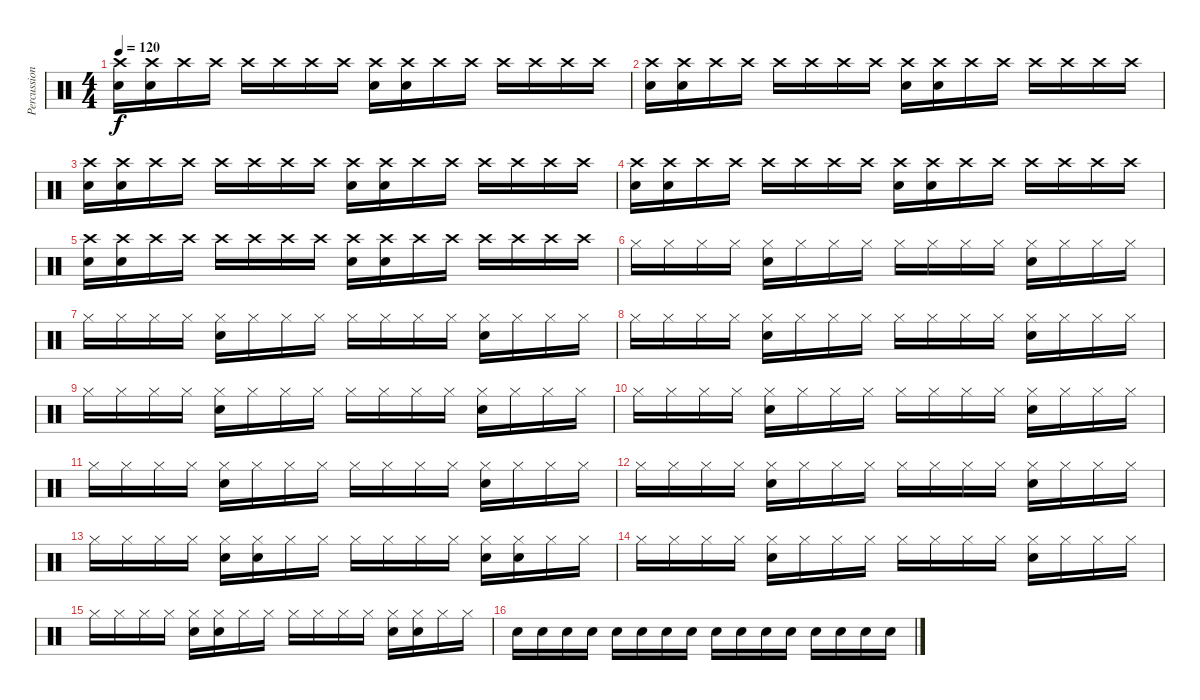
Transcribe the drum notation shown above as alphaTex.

\track ("Percussion" "Percussion") {instrument percussion}
\staff {score}
\articulation defaults
\ts (4 4)
\tempo 120
\clef neutral
\ks c
("Crash high (hit)" "Electric Snare (hit)").16{dy f} ("Crash high (hit)" "Electric Snare (hit)").16 "Crash high (hit)".16 "Crash high (hit)".16 "Crash high (hit)".16 "Crash high (hit)".16 "Crash high (hit)".16 "Crash high (hit)".16 ("Crash high (hit)" "Electric Snare (hit)").16 ("Crash high (hit)" "Electric Snare (hit)").16 "Crash high (hit)".16 "Crash high (hit)".16 "Crash high (hit)".16 "Crash high (hit)".16 "Crash high (hit)".16 "Crash high (hit)".16 |
("Crash high (hit)" "Electric Snare (hit)").16 ("Crash high (hit)" "Electric Snare (hit)").16 "Crash high (hit)".16 "Crash high (hit)".16 "Crash high (hit)".16 "Crash high (hit)".16 "Crash high (hit)".16 "Crash high (hit)".16 ("Crash high (hit)" "Electric Snare (hit)").16 ("Crash high (hit)" "Electric Snare (hit)").16 "Crash high (hit)".16 "Crash high (hit)".16 "Crash high (hit)".16 "Crash high (hit)".16 "Crash high (hit)".16 "Crash high (hit)".16 |
("Crash high (hit)" "Electric Snare (hit)").16 ("Crash high (hit)" "Electric Snare (hit)").16 "Crash high (hit)".16 "Crash high (hit)".16 "Crash high (hit)".16 "Crash high (hit)".16 "Crash high (hit)".16 "Crash high (hit)".16 ("Crash high (hit)" "Electric Snare (hit)").16 ("Crash high (hit)" "Electric Snare (hit)").16 "Crash high (hit)".16 "Crash high (hit)".16 "Crash high (hit)".16 "Crash high (hit)".16 "Crash high (hit)".16 "Crash high (hit)".16 |
("Crash high (hit)" "Electric Snare (hit)").16 ("Crash high (hit)" "Electric Snare (hit)").16 "Crash high (hit)".16 "Crash high (hit)".16 "Crash high (hit)".16 "Crash high (hit)".16 "Crash high (hit)".16 "Crash high (hit)".16 ("Crash high (hit)" "Electric Snare (hit)").16 ("Crash high (hit)" "Electric Snare (hit)").16 "Crash high (hit)".16 "Crash high (hit)".16 "Crash high (hit)".16 "Crash high (hit)".16 "Crash high (hit)".16 "Crash high (hit)".16 |
("Crash high (hit)" "Electric Snare (hit)").16 ("Crash high (hit)" "Electric Snare (hit)").16 "Crash high (hit)".16 "Crash high (hit)".16 "Crash high (hit)".16 "Crash high (hit)".16 "Crash high (hit)".16 "Crash high (hit)".16 ("Crash high (hit)" "Electric Snare (hit)").16 ("Crash high (hit)" "Electric Snare (hit)").16 "Crash high (hit)".16 "Crash high (hit)".16 "Crash high (hit)".16 "Crash high (hit)".16 "Crash high (hit)".16 "Crash high (hit)".16 |
"Hi-Hat (closed)".16 "Hi-Hat (closed)".16 "Hi-Hat (closed)".16 "Hi-Hat (closed)".16 ("Hi-Hat (closed)" "Electric Snare (hit)").16 "Hi-Hat (closed)".16 "Hi-Hat (closed)".16 "Hi-Hat (closed)".16 "Hi-Hat (closed)".16 "Hi-Hat (closed)".16 "Hi-Hat (closed)".16 "Hi-Hat (closed)".16 ("Hi-Hat (closed)" "Electric Snare (hit)").16 "Hi-Hat (closed)".16 "Hi-Hat (closed)".16 "Hi-Hat (closed)".16 |
"Hi-Hat (closed)".16 "Hi-Hat (closed)".16 "Hi-Hat (closed)".16 "Hi-Hat (closed)".16 ("Hi-Hat (closed)" "Electric Snare (hit)").16 "Hi-Hat (closed)".16 "Hi-Hat (closed)".16 "Hi-Hat (closed)".16 "Hi-Hat (closed)".16 "Hi-Hat (closed)".16 "Hi-Hat (closed)".16 "Hi-Hat (closed)".16 ("Hi-Hat (closed)" "Electric Snare (hit)").16 "Hi-Hat (closed)".16 "Hi-Hat (closed)".16 "Hi-Hat (closed)".16 |
"Hi-Hat (closed)".16 "Hi-Hat (closed)".16 "Hi-Hat (closed)".16 "Hi-Hat (closed)".16 ("Hi-Hat (closed)" "Electric Snare (hit)").16 "Hi-Hat (closed)".16 "Hi-Hat (closed)".16 "Hi-Hat (closed)".16 "Hi-Hat (closed)".16 "Hi-Hat (closed)".16 "Hi-Hat (closed)".16 "Hi-Hat (closed)".16 ("Hi-Hat (closed)" "Electric Snare (hit)").16 "Hi-Hat (closed)".16 "Hi-Hat (closed)".16 "Hi-Hat (closed)".16 |
"Hi-Hat (closed)".16 "Hi-Hat (closed)".16 "Hi-Hat (closed)".16 "Hi-Hat (closed)".16 ("Hi-Hat (closed)" "Electric Snare (hit)").16 "Hi-Hat (closed)".16 "Hi-Hat (closed)".16 "Hi-Hat (closed)".16 "Hi-Hat (closed)".16 "Hi-Hat (closed)".16 "Hi-Hat (closed)".16 "Hi-Hat (closed)".16 ("Hi-Hat (closed)" "Electric Snare (hit)").16 "Hi-Hat (closed)".16 "Hi-Hat (closed)".16 "Hi-Hat (closed)".16 |
"Hi-Hat (closed)".16 "Hi-Hat (closed)".16 "Hi-Hat (closed)".16 "Hi-Hat (closed)".16 ("Hi-Hat (closed)" "Electric Snare (hit)").16 "Hi-Hat (closed)".16 "Hi-Hat (closed)".16 "Hi-Hat (closed)".16 "Hi-Hat (closed)".16 "Hi-Hat (closed)".16 "Hi-Hat (closed)".16 "Hi-Hat (closed)".16 ("Hi-Hat (closed)" "Electric Snare (hit)").16 "Hi-Hat (closed)".16 "Hi-Hat (closed)".16 "Hi-Hat (closed)".16 |
"Hi-Hat (closed)".16 "Hi-Hat (closed)".16 "Hi-Hat (closed)".16 "Hi-Hat (closed)".16 ("Hi-Hat (closed)" "Electric Snare (hit)").16 "Hi-Hat (closed)".16 "Hi-Hat (closed)".16 "Hi-Hat (closed)".16 "Hi-Hat (closed)".16 "Hi-Hat (closed)".16 "Hi-Hat (closed)".16 "Hi-Hat (closed)".16 ("Hi-Hat (closed)" "Electric Snare (hit)").16 "Hi-Hat (closed)".16 "Hi-Hat (closed)".16 "Hi-Hat (closed)".16 |
"Hi-Hat (closed)".16 "Hi-Hat (closed)".16 "Hi-Hat (closed)".16 "Hi-Hat (closed)".16 ("Hi-Hat (closed)" "Electric Snare (hit)").16 "Hi-Hat (closed)".16 "Hi-Hat (closed)".16 "Hi-Hat (closed)".16 "Hi-Hat (closed)".16 "Hi-Hat (closed)".16 "Hi-Hat (closed)".16 "Hi-Hat (closed)".16 ("Hi-Hat (closed)" "Electric Snare (hit)").16 "Hi-Hat (closed)".16 "Hi-Hat (closed)".16 "Hi-Hat (closed)".16 |
"Hi-Hat (closed)".16 "Hi-Hat (closed)".16 "Hi-Hat (closed)".16 "Hi-Hat (closed)".16 ("Hi-Hat (closed)" "Electric Snare (hit)").16 ("Hi-Hat (closed)" "Electric Snare (hit)").16 "Hi-Hat (closed)".16 "Hi-Hat (closed)".16 "Hi-Hat (closed)".16 "Hi-Hat (closed)".16 "Hi-Hat (closed)".16 "Hi-Hat (closed)".16 ("Hi-Hat (closed)" "Electric Snare (hit)").16 ("Hi-Hat (closed)" "Electric Snare (hit)").16 "Hi-Hat (closed)".16 "Hi-Hat (closed)".16 |
"Hi-Hat (closed)".16 "Hi-Hat (closed)".16 "Hi-Hat (closed)".16 "Hi-Hat (closed)".16 ("Hi-Hat (closed)" "Electric Snare (hit)").16 "Hi-Hat (closed)".16 "Hi-Hat (closed)".16 "Hi-Hat (closed)".16 "Hi-Hat (closed)".16 "Hi-Hat (closed)".16 "Hi-Hat (closed)".16 "Hi-Hat (closed)".16 ("Hi-Hat (closed)" "Electric Snare (hit)").16 "Hi-Hat (closed)".16 "Hi-Hat (closed)".16 "Hi-Hat (closed)".16 |
"Hi-Hat (closed)".16 "Hi-Hat (closed)".16 "Hi-Hat (closed)".16 "Hi-Hat (closed)".16 ("Hi-Hat (closed)" "Electric Snare (hit)").16 ("Hi-Hat (closed)" "Electric Snare (hit)").16 "Hi-Hat (closed)".16 "Hi-Hat (closed)".16 "Hi-Hat (closed)".16 "Hi-Hat (closed)".16 "Hi-Hat (closed)".16 "Hi-Hat (closed)".16 ("Hi-Hat (closed)" "Electric Snare (hit)").16 ("Hi-Hat (closed)" "Electric Snare (hit)").16 "Hi-Hat (closed)".16 "Hi-Hat (closed)".16 |
"Electric Snare (hit)".16 "Electric Snare (hit)".16 "Electric Snare (hit)".16 "Electric Snare (hit)".16 "Electric Snare (hit)".16 "Electric Snare (hit)".16 "Electric Snare (hit)".16 "Electric Snare (hit)".16 "Electric Snare (hit)".16 "Electric Snare (hit)".16 "Electric Snare (hit)".16 "Electric Snare (hit)".16 "Electric Snare (hit)".16 "Electric Snare (hit)".16 "Electric Snare (hit)".16 "Electric Snare (hit)".16
